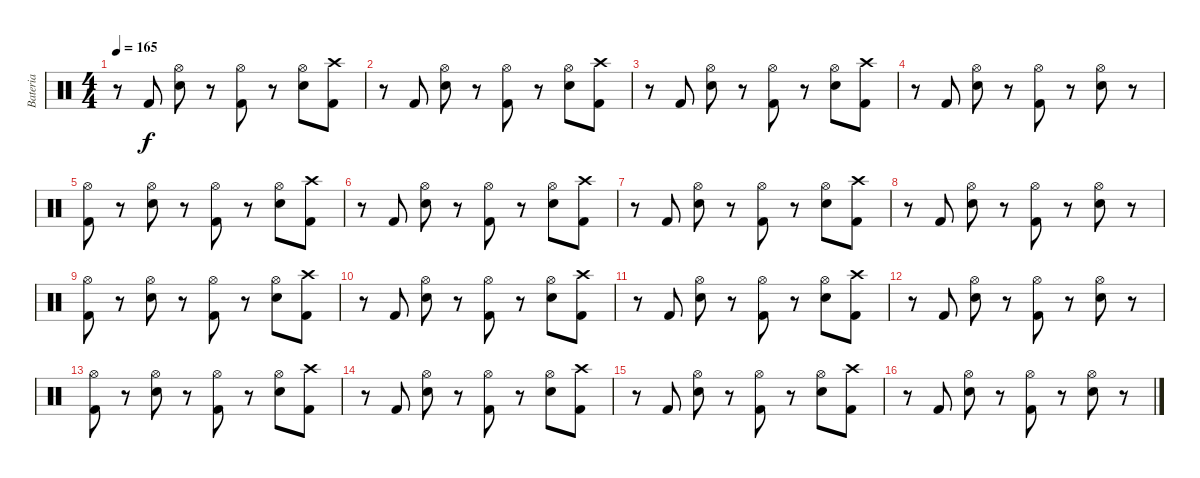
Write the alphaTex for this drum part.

\track ("Bateria" "Bateria") {instrument percussion}
\staff {score}
\articulation defaults
\ts (4 4)
\tempo 165
\clef neutral
\ks c
r.8{dy f} "Kick (hit) 2".8 ("Hi-Hat (open)" "Snare (hit) 2").8 r.8 ("Hi-Hat (open)" "Kick (hit) 2").8 r.8 ("Hi-Hat (open)" "Snare (hit) 2").8 ("Crash high (hit)" "Kick (hit) 2").8 |
r.8 "Kick (hit) 2".8 ("Hi-Hat (open)" "Snare (hit) 2").8 r.8 ("Hi-Hat (open)" "Kick (hit) 2").8 r.8 ("Hi-Hat (open)" "Snare (hit) 2").8 ("Crash high (hit)" "Kick (hit) 2").8 |
r.8 "Kick (hit) 2".8 ("Hi-Hat (open)" "Snare (hit) 2").8 r.8 ("Hi-Hat (open)" "Kick (hit) 2").8 r.8 ("Hi-Hat (open)" "Snare (hit) 2").8 ("Crash high (hit)" "Kick (hit) 2").8 |
r.8 "Kick (hit) 2".8 ("Hi-Hat (open)" "Snare (hit) 2").8 r.8 ("Hi-Hat (open)" "Kick (hit) 2").8 r.8 ("Hi-Hat (open)" "Snare (hit) 2").8 r.8 |
("Hi-Hat (open)" "Kick (hit) 2").8 r.8 ("Hi-Hat (open)" "Snare (hit) 2").8 r.8 ("Hi-Hat (open)" "Kick (hit) 2").8 r.8 ("Hi-Hat (open)" "Snare (hit) 2").8 ("Crash high (hit)" "Kick (hit) 2").8 |
r.8 "Kick (hit) 2".8 ("Hi-Hat (open)" "Snare (hit) 2").8 r.8 ("Hi-Hat (open)" "Kick (hit) 2").8 r.8 ("Hi-Hat (open)" "Snare (hit) 2").8 ("Crash high (hit)" "Kick (hit) 2").8 |
r.8 "Kick (hit) 2".8 ("Hi-Hat (open)" "Snare (hit) 2").8 r.8 ("Hi-Hat (open)" "Kick (hit) 2").8 r.8 ("Hi-Hat (open)" "Snare (hit) 2").8 ("Crash high (hit)" "Kick (hit) 2").8 |
r.8 "Kick (hit) 2".8 ("Hi-Hat (open)" "Snare (hit) 2").8 r.8 ("Hi-Hat (open)" "Kick (hit) 2").8 r.8 ("Hi-Hat (open)" "Snare (hit) 2").8 r.8 |
("Hi-Hat (open)" "Kick (hit) 2").8 r.8 ("Hi-Hat (open)" "Snare (hit) 2").8 r.8 ("Hi-Hat (open)" "Kick (hit) 2").8 r.8 ("Hi-Hat (open)" "Snare (hit) 2").8 ("Crash high (hit)" "Kick (hit) 2").8 |
r.8 "Kick (hit) 2".8 ("Hi-Hat (open)" "Snare (hit) 2").8 r.8 ("Hi-Hat (open)" "Kick (hit) 2").8 r.8 ("Hi-Hat (open)" "Snare (hit) 2").8 ("Crash high (hit)" "Kick (hit) 2").8 |
r.8 "Kick (hit) 2".8 ("Hi-Hat (open)" "Snare (hit) 2").8 r.8 ("Hi-Hat (open)" "Kick (hit) 2").8 r.8 ("Hi-Hat (open)" "Snare (hit) 2").8 ("Crash high (hit)" "Kick (hit) 2").8 |
r.8 "Kick (hit) 2".8 ("Hi-Hat (open)" "Snare (hit) 2").8 r.8 ("Hi-Hat (open)" "Kick (hit) 2").8 r.8 ("Hi-Hat (open)" "Snare (hit) 2").8 r.8 |
("Hi-Hat (open)" "Kick (hit) 2").8 r.8 ("Hi-Hat (open)" "Snare (hit) 2").8 r.8 ("Hi-Hat (open)" "Kick (hit) 2").8 r.8 ("Hi-Hat (open)" "Snare (hit) 2").8 ("Crash high (hit)" "Kick (hit) 2").8 |
r.8 "Kick (hit) 2".8 ("Hi-Hat (open)" "Snare (hit) 2").8 r.8 ("Hi-Hat (open)" "Kick (hit) 2").8 r.8 ("Hi-Hat (open)" "Snare (hit) 2").8 ("Crash high (hit)" "Kick (hit) 2").8 |
r.8 "Kick (hit) 2".8 ("Hi-Hat (open)" "Snare (hit) 2").8 r.8 ("Hi-Hat (open)" "Kick (hit) 2").8 r.8 ("Hi-Hat (open)" "Snare (hit) 2").8 ("Crash high (hit)" "Kick (hit) 2").8 |
r.8 "Kick (hit) 2".8 ("Hi-Hat (open)" "Snare (hit) 2").8 r.8 ("Hi-Hat (open)" "Kick (hit) 2").8 r.8 ("Hi-Hat (open)" "Snare (hit) 2").8 r.8
